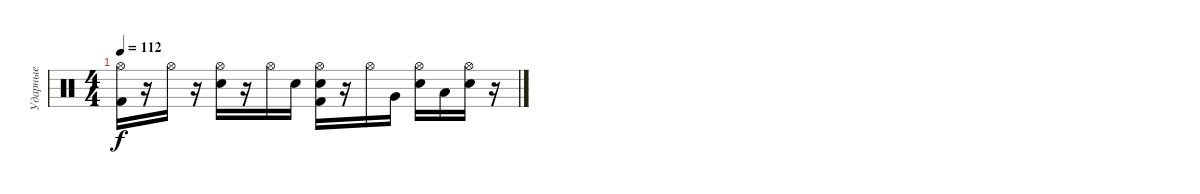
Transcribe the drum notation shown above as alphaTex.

\track ("Ударные" "Ударные") {instrument percussion}
\staff {score}
\articulation defaults
\ts (4 4)
\tempo 112
\clef neutral
\ks c
("Hi-Hat (open)" "Kick (hit) 2").16{dy f} r.16 "Hi-Hat (open)".16 r.16 ("Hi-Hat (open)" "Snare (hit) 2").16 r.16 "Hi-Hat (open)".16 "Snare (hit) 2".16 ("Hi-Hat (open)" "Electric Snare (hit)" "Kick (hit) 2").16 r.16 "Hi-Hat (open)".16 "Very Low Tom (hit)".16 ("Hi-Hat (open)" "Snare (hit) 2").16 "Low Floor Tom (hit)".16 ("Hi-Hat (open)" "Electric Snare (hit)").16 r.16
